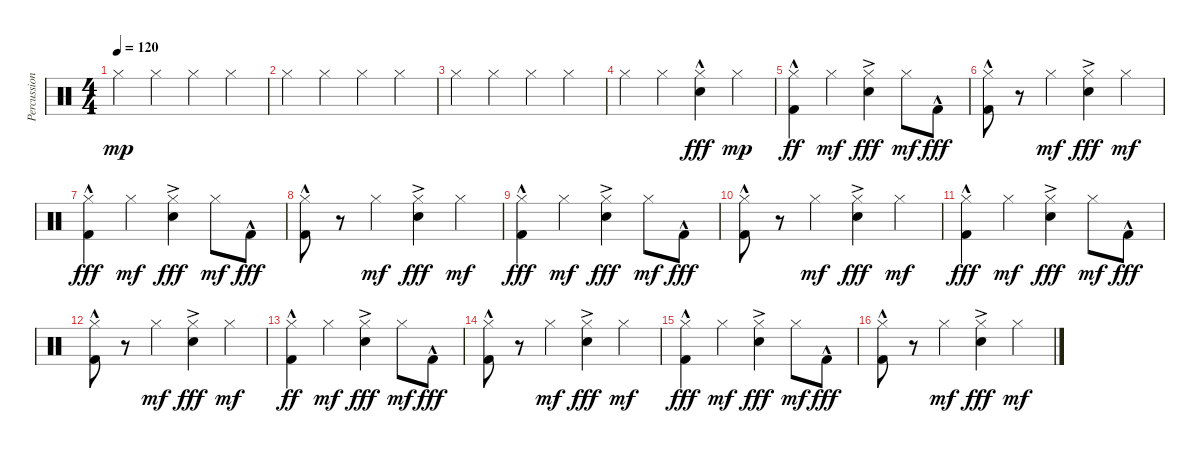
\track ("Percussion" "Percussion") {instrument percussion}
\staff {score}
\articulation defaults
\ts (4 4)
\tempo 120
\clef neutral
\ks c "Hi-Hat (closed)".4{dy mp} "Hi-Hat (closed)".4 "Hi-Hat (closed)".4 "Hi-Hat (closed)".4
|
"Hi-Hat (closed)".4 "Hi-Hat (closed)".4 "Hi-Hat (closed)".4 "Hi-Hat (closed)".4 |
"Hi-Hat (closed)".4 "Hi-Hat (closed)".4 "Hi-Hat (closed)".4 "Hi-Hat (closed)".4 |
"Hi-Hat (closed)".4 "Hi-Hat (closed)".4 ("Hi-Hat (closed)" "Electric Snare (hit)"{hac}).4{dy fff} "Hi-Hat (closed)".4{dy mp} |
("Hi-Hat (closed)" "Kick (hit) 2"{hac}).4{dy ff} "Hi-Hat (closed)".4{dy mf} ("Hi-Hat (closed)" "Electric Snare (hit)"{ac}).4{dy fff} "Hi-Hat (closed)".8{dy mf} "Kick (hit) 2"{hac}.8{dy fff} |
("Hi-Hat (closed)" "Kick (hit) 2"{hac}).8 r.8 "Hi-Hat (closed)".4{dy mf} ("Hi-Hat (closed)" "Electric Snare (hit)"{ac}).4{dy fff} "Hi-Hat (closed)".4{dy mf} |
("Hi-Hat (closed)" "Kick (hit) 2"{hac}).4{dy fff} "Hi-Hat (closed)".4{dy mf} ("Hi-Hat (closed)" "Electric Snare (hit)"{ac}).4{dy fff} "Hi-Hat (closed)".8{dy mf} "Kick (hit) 2"{hac}.8{dy fff} |
("Hi-Hat (closed)" "Kick (hit) 2"{hac}).8 r.8 "Hi-Hat (closed)".4{dy mf} ("Hi-Hat (closed)" "Electric Snare (hit)"{ac}).4{dy fff} "Hi-Hat (closed)".4{dy mf} |
("Hi-Hat (closed)" "Kick (hit) 2"{hac}).4{dy fff} "Hi-Hat (closed)".4{dy mf} ("Hi-Hat (closed)" "Electric Snare (hit)"{ac}).4{dy fff} "Hi-Hat (closed)".8{dy mf} "Kick (hit) 2"{hac}.8{dy fff} |
("Hi-Hat (closed)" "Kick (hit) 2"{hac}).8 r.8 "Hi-Hat (closed)".4{dy mf} ("Hi-Hat (closed)" "Electric Snare (hit)"{ac}).4{dy fff} "Hi-Hat (closed)".4{dy mf} |
("Hi-Hat (closed)" "Kick (hit) 2"{hac}).4{dy fff} "Hi-Hat (closed)".4{dy mf} ("Hi-Hat (closed)" "Electric Snare (hit)"{ac}).4{dy fff} "Hi-Hat (closed)".8{dy mf} "Kick (hit) 2"{hac}.8{dy fff} |
("Hi-Hat (closed)" "Kick (hit) 2"{hac}).8 r.8 "Hi-Hat (closed)".4{dy mf} ("Hi-Hat (closed)" "Electric Snare (hit)"{ac}).4{dy fff} "Hi-Hat (closed)".4{dy mf} |
("Hi-Hat (closed)" "Kick (hit) 2"{hac}).4{dy ff} "Hi-Hat (closed)".4{dy mf} ("Hi-Hat (closed)" "Electric Snare (hit)"{ac}).4{dy fff} "Hi-Hat (closed)".8{dy mf} "Kick (hit) 2"{hac}.8{dy fff} |
("Hi-Hat (closed)" "Kick (hit) 2"{hac}).8 r.8 "Hi-Hat (closed)".4{dy mf} ("Hi-Hat (closed)" "Electric Snare (hit)"{ac}).4{dy fff} "Hi-Hat (closed)".4{dy mf} |
("Hi-Hat (closed)" "Kick (hit) 2"{hac}).4{dy fff} "Hi-Hat (closed)".4{dy mf} ("Hi-Hat (closed)" "Electric Snare (hit)"{ac}).4{dy fff} "Hi-Hat (closed)".8{dy mf} "Kick (hit) 2"{hac}.8{dy fff} |
("Hi-Hat (closed)" "Kick (hit) 2"{hac}).8 r.8 "Hi-Hat (closed)".4{dy mf} ("Hi-Hat (closed)" "Electric Snare (hit)"{ac}).4{dy fff} "Hi-Hat (closed)".4{dy mf}
